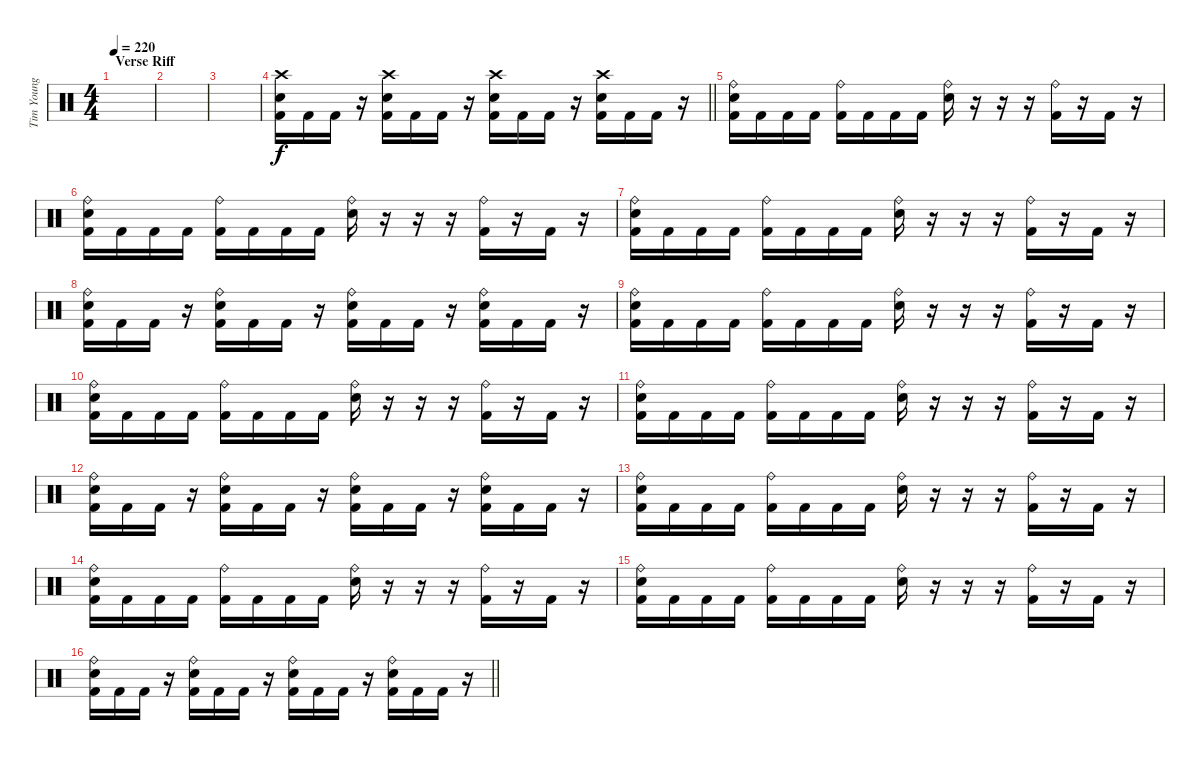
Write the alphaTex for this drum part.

\track ("Tim Young - Drums" "Tim Young ") {instrument percussion}
\staff {score}
\articulation defaults
\ts (4 4)
\section ("" "Verse Riff")
\tempo 220
\clef neutral
\ks c
|
|
|
\barLineRight lightlight
("Crash high (hit)" "Electric Snare (hit)" "Kick (hit) 2").16 "Kick (hit) 2".16 "Kick (hit) 2".16 r.16 ("Crash high (hit)" "Electric Snare (hit)" "Kick (hit) 2").16 "Kick (hit) 2".16 "Kick (hit) 2".16 r.16 ("Crash high (hit)" "Electric Snare (hit)" "Kick (hit) 2").16 "Kick (hit) 2".16 "Kick (hit) 2".16 r.16 ("Crash high (hit)" "Electric Snare (hit)" "Kick (hit) 2").16 "Kick (hit) 2".16 "Kick (hit) 2".16 r.16 |
\section ("" "")
("Ride (bell)" "Electric Snare (hit)" "Kick (hit) 2").16 "Kick (hit) 2".16 "Kick (hit) 2".16 "Kick (hit) 2".16 ("Ride (bell)" "Kick (hit) 2").16 "Kick (hit) 2".16 "Kick (hit) 2".16 "Kick (hit) 2".16 ("Ride (bell)" "Electric Snare (hit)").16 r.16 r.16 r.16 ("Ride (bell)" "Kick (hit) 2").16 r.16 "Kick (hit) 2".16 r.16 |
("Ride (bell)" "Electric Snare (hit)" "Kick (hit) 2").16 "Kick (hit) 2".16 "Kick (hit) 2".16 "Kick (hit) 2".16 ("Ride (bell)" "Kick (hit) 2").16 "Kick (hit) 2".16 "Kick (hit) 2".16 "Kick (hit) 2".16 ("Ride (bell)" "Electric Snare (hit)").16 r.16 r.16 r.16 ("Ride (bell)" "Kick (hit) 2").16 r.16 "Kick (hit) 2".16 r.16 |
("Ride (bell)" "Electric Snare (hit)" "Kick (hit) 2").16 "Kick (hit) 2".16 "Kick (hit) 2".16 "Kick (hit) 2".16 ("Ride (bell)" "Kick (hit) 2").16 "Kick (hit) 2".16 "Kick (hit) 2".16 "Kick (hit) 2".16 ("Ride (bell)" "Electric Snare (hit)").16 r.16 r.16 r.16 ("Ride (bell)" "Kick (hit) 2").16 r.16 "Kick (hit) 2".16 r.16 |
("Ride (bell)" "Electric Snare (hit)" "Kick (hit) 2").16 "Kick (hit) 2".16 "Kick (hit) 2".16 r.16 ("Ride (bell)" "Electric Snare (hit)" "Kick (hit) 2").16 "Kick (hit) 2".16 "Kick (hit) 2".16 r.16 ("Ride (bell)" "Electric Snare (hit)" "Kick (hit) 2").16 "Kick (hit) 2".16 "Kick (hit) 2".16 r.16 ("Ride (bell)" "Electric Snare (hit)" "Kick (hit) 2").16 "Kick (hit) 2".16 "Kick (hit) 2".16 r.16 |
("Ride (bell)" "Electric Snare (hit)" "Kick (hit) 2").16 "Kick (hit) 2".16 "Kick (hit) 2".16 "Kick (hit) 2".16 ("Ride (bell)" "Kick (hit) 2").16 "Kick (hit) 2".16 "Kick (hit) 2".16 "Kick (hit) 2".16 ("Ride (bell)" "Electric Snare (hit)").16 r.16 r.16 r.16 ("Ride (bell)" "Kick (hit) 2").16 r.16 "Kick (hit) 2".16 r.16 |
("Ride (bell)" "Electric Snare (hit)" "Kick (hit) 2").16 "Kick (hit) 2".16 "Kick (hit) 2".16 "Kick (hit) 2".16 ("Ride (bell)" "Kick (hit) 2").16 "Kick (hit) 2".16 "Kick (hit) 2".16 "Kick (hit) 2".16 ("Ride (bell)" "Electric Snare (hit)").16 r.16 r.16 r.16 ("Ride (bell)" "Kick (hit) 2").16 r.16 "Kick (hit) 2".16 r.16 |
("Ride (bell)" "Electric Snare (hit)" "Kick (hit) 2").16 "Kick (hit) 2".16 "Kick (hit) 2".16 "Kick (hit) 2".16 ("Ride (bell)" "Kick (hit) 2").16 "Kick (hit) 2".16 "Kick (hit) 2".16 "Kick (hit) 2".16 ("Ride (bell)" "Electric Snare (hit)").16 r.16 r.16 r.16 ("Ride (bell)" "Kick (hit) 2").16 r.16 "Kick (hit) 2".16 r.16 |
("Ride (bell)" "Electric Snare (hit)" "Kick (hit) 2").16 "Kick (hit) 2".16 "Kick (hit) 2".16 r.16 ("Ride (bell)" "Electric Snare (hit)" "Kick (hit) 2").16 "Kick (hit) 2".16 "Kick (hit) 2".16 r.16 ("Ride (bell)" "Electric Snare (hit)" "Kick (hit) 2").16 "Kick (hit) 2".16 "Kick (hit) 2".16 r.16 ("Ride (bell)" "Electric Snare (hit)" "Kick (hit) 2").16 "Kick (hit) 2".16 "Kick (hit) 2".16 r.16 |
("Ride (bell)" "Electric Snare (hit)" "Kick (hit) 2").16 "Kick (hit) 2".16 "Kick (hit) 2".16 "Kick (hit) 2".16 ("Ride (bell)" "Kick (hit) 2").16 "Kick (hit) 2".16 "Kick (hit) 2".16 "Kick (hit) 2".16 ("Ride (bell)" "Electric Snare (hit)").16 r.16 r.16 r.16 ("Ride (bell)" "Kick (hit) 2").16 r.16 "Kick (hit) 2".16 r.16 |
("Ride (bell)" "Electric Snare (hit)" "Kick (hit) 2").16 "Kick (hit) 2".16 "Kick (hit) 2".16 "Kick (hit) 2".16 ("Ride (bell)" "Kick (hit) 2").16 "Kick (hit) 2".16 "Kick (hit) 2".16 "Kick (hit) 2".16 ("Ride (bell)" "Electric Snare (hit)").16 r.16 r.16 r.16 ("Ride (bell)" "Kick (hit) 2").16 r.16 "Kick (hit) 2".16 r.16 |
("Ride (bell)" "Electric Snare (hit)" "Kick (hit) 2").16 "Kick (hit) 2".16 "Kick (hit) 2".16 "Kick (hit) 2".16 ("Ride (bell)" "Kick (hit) 2").16 "Kick (hit) 2".16 "Kick (hit) 2".16 "Kick (hit) 2".16 ("Ride (bell)" "Electric Snare (hit)").16 r.16 r.16 r.16 ("Ride (bell)" "Kick (hit) 2").16 r.16 "Kick (hit) 2".16 r.16 |
\barLineRight lightlight
("Ride (bell)" "Electric Snare (hit)" "Kick (hit) 2").16 "Kick (hit) 2".16 "Kick (hit) 2".16 r.16 ("Ride (bell)" "Electric Snare (hit)" "Kick (hit) 2").16 "Kick (hit) 2".16 "Kick (hit) 2".16 r.16 ("Ride (bell)" "Electric Snare (hit)" "Kick (hit) 2").16 "Kick (hit) 2".16 "Kick (hit) 2".16 r.16 ("Ride (bell)" "Electric Snare (hit)" "Kick (hit) 2").16 "Kick (hit) 2".16 "Kick (hit) 2".16 r.16
